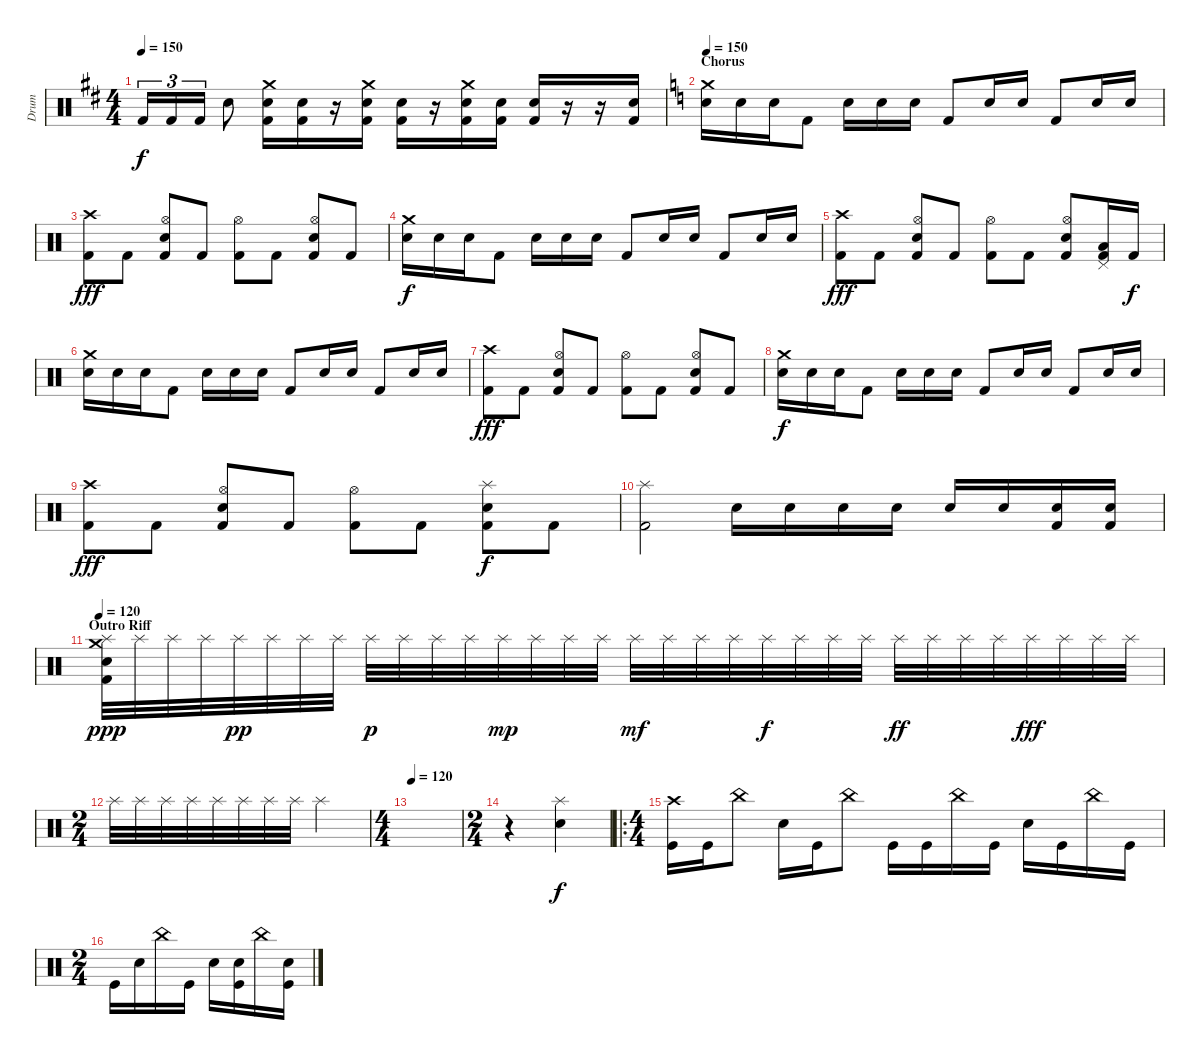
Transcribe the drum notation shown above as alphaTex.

\track ("Drum" "Drum") {instrument percussion}
\staff {score}
\articulation defaults
\ts (4 4)
\tempo 150
\clef neutral
\ks d "Kick (hit) 2".16{tu (3 2) dy f} "Kick (hit) 2".16{tu (3 2)} "Kick (hit) 2".16{tu (3 2)} "Electric Snare (hit)".8
("Crash medium (hit)" "Electric Snare (hit)" "Kick (hit) 2").16 ("Electric Snare (hit)" "Kick (hit) 2").16 r.16 ("Crash medium (hit)" "Electric Snare (hit)" "Kick (hit) 2").16 ("Electric Snare (hit)" "Kick (hit) 2").16 r.16 ("Crash medium (hit)" "Electric Snare (hit)" "Kick (hit) 2").16 ("Electric Snare (hit)" "Kick (hit) 2").16 ("Electric Snare (hit)" "Kick (hit) 2").16 r.16 r.16 ("Electric Snare (hit)" "Kick (hit) 2").16 |
\section ("" "Chorus")
\tempo 150
\ks c
("Crash medium (hit)" "Electric Snare (hit)").16 "Electric Snare (hit)".16 "Electric Snare (hit)".16 "Kick (hit) 2".8 "Electric Snare (hit)".16 "Electric Snare (hit)".16 "Electric Snare (hit)".16 "Kick (hit) 2".8 "Electric Snare (hit)".16 "Electric Snare (hit)".16 "Kick (hit) 2".8 "Electric Snare (hit)".16 "Electric Snare (hit)".16 |
("Crash high (hit)" "Kick (hit) 2").8{dy fff} "Kick (hit) 2".8 ("Hi-Hat (open)" "Snare (hit) 2" "Kick (hit) 2").8 "Kick (hit) 2".8 ("Hi-Hat (open)" "Kick (hit) 2").8 "Kick (hit) 2".8 ("Hi-Hat (open)" "Snare (hit) 2" "Kick (hit) 2").8 "Kick (hit) 2".8 |
("Crash medium (hit)" "Electric Snare (hit)").16{dy f} "Electric Snare (hit)".16 "Electric Snare (hit)".16 "Kick (hit) 2".8 "Electric Snare (hit)".16 "Electric Snare (hit)".16 "Electric Snare (hit)".16 "Kick (hit) 2".8 "Electric Snare (hit)".16 "Electric Snare (hit)".16 "Kick (hit) 2".8 "Electric Snare (hit)".16 "Electric Snare (hit)".16 |
("Crash high (hit)" "Kick (hit) 2").8{dy fff} "Kick (hit) 2".8 ("Hi-Hat (open)" "Snare (hit) 2" "Kick (hit) 2").8 "Kick (hit) 2".8 ("Hi-Hat (open)" "Kick (hit) 2").8 "Kick (hit) 2".8 ("Hi-Hat (open)" "Snare (hit) 2" "Kick (hit) 2").8 ("Pedal Hi-Hat (hit)" "Low Floor Tom (hit)" "Kick (hit) 2").16 "Kick (hit) 2".16{dy f} |
("Crash medium (hit)" "Electric Snare (hit)").16 "Electric Snare (hit)".16 "Electric Snare (hit)".16 "Kick (hit) 2".8 "Electric Snare (hit)".16 "Electric Snare (hit)".16 "Electric Snare (hit)".16 "Kick (hit) 2".8 "Electric Snare (hit)".16 "Electric Snare (hit)".16 "Kick (hit) 2".8 "Electric Snare (hit)".16 "Electric Snare (hit)".16 |
("Crash high (hit)" "Kick (hit) 2").8{dy fff} "Kick (hit) 2".8 ("Hi-Hat (open)" "Snare (hit) 2" "Kick (hit) 2").8 "Kick (hit) 2".8 ("Hi-Hat (open)" "Kick (hit) 2").8 "Kick (hit) 2".8 ("Hi-Hat (open)" "Snare (hit) 2" "Kick (hit) 2").8 "Kick (hit) 2".8 |
("Crash medium (hit)" "Electric Snare (hit)").16{dy f} "Electric Snare (hit)".16 "Electric Snare (hit)".16 "Kick (hit) 2".8 "Electric Snare (hit)".16 "Electric Snare (hit)".16 "Electric Snare (hit)".16 "Kick (hit) 2".8 "Electric Snare (hit)".16 "Electric Snare (hit)".16 "Kick (hit) 2".8 "Electric Snare (hit)".16 "Electric Snare (hit)".16 |
("Crash high (hit)" "Kick (hit) 2").8{dy fff} "Kick (hit) 2".8 ("Hi-Hat (open)" "Snare (hit) 2" "Kick (hit) 2").8 "Kick (hit) 2".8 ("Hi-Hat (open)" "Kick (hit) 2").8 "Kick (hit) 2".8 ("Splash (hit)" "Electric Snare (hit)" "Kick (hit) 2").8{dy f} "Kick (hit) 2".8 |
("Splash (hit)" "Kick (hit) 2").2 "Electric Snare (hit)".16 "Electric Snare (hit)".16 "Electric Snare (hit)".16 "Electric Snare (hit)".16 "Electric Snare (hit)".16 "Electric Snare (hit)".16 ("Electric Snare (hit)" "Kick (hit) 2").16 ("Electric Snare (hit)" "Kick (hit) 2").16 |
\section ("" "Outro Riff")
\tempo 120
("Crash medium (hit)" "Splash (hit)" "Electric Snare (hit)" "Kick (hit) 2").32{dy ppp} "Splash (hit)".32 "Splash (hit)".32 "Splash (hit)".32 "Splash (hit)".32{dy pp} "Splash (hit)".32 "Splash (hit)".32 "Splash (hit)".32 "Splash (hit)".32{dy p} "Splash (hit)".32 "Splash (hit)".32 "Splash (hit)".32 "Splash (hit)".32{dy mp} "Splash (hit)".32 "Splash (hit)".32 "Splash (hit)".32 "Splash (hit)".32{dy mf} "Splash (hit)".32 "Splash (hit)".32 "Splash (hit)".32 "Splash (hit)".32{dy f} "Splash (hit)".32 "Splash (hit)".32 "Splash (hit)".32 "Splash (hit)".32{dy ff} "Splash (hit)".32 "Splash (hit)".32 "Splash (hit)".32 "Splash (hit)".32{dy fff} "Splash (hit)".32 "Splash (hit)".32 "Splash (hit)".32 |
\ts (2 4)
"Splash (hit)".32 "Splash (hit)".32 "Splash (hit)".32 "Splash (hit)".32 "Splash (hit)".32 "Splash (hit)".32 "Splash (hit)".32 "Splash (hit)".32 "Splash (hit)".4 |
\ts (4 4)
\tempo 120
|
\ts (2 4)
r.4 ("Splash (hit)" "Electric Snare (hit)").4{dy f} |
\ro
\ts (4 4)
("Crash high (hit)" "Kick (hit)").16 "Kick (hit)".16 "China (hit)".8 "Electric Snare (hit)".16 "Kick (hit)".16 "China (hit)".8 "Kick (hit)".16 "Kick (hit)".16 "China (hit)".16 "Kick (hit)".16 "Electric Snare (hit)".16 "Kick (hit)".16 "China (hit)".16 "Kick (hit)".16 |
\ts (2 4)
"Kick (hit)".16 "Electric Snare (hit)".16 "China (hit)".16 "Kick (hit)".16 "Electric Snare (hit)".16 ("Electric Snare (hit)" "Kick (hit)").16 "China (hit)".16 ("Electric Snare (hit)" "Kick (hit)").16
